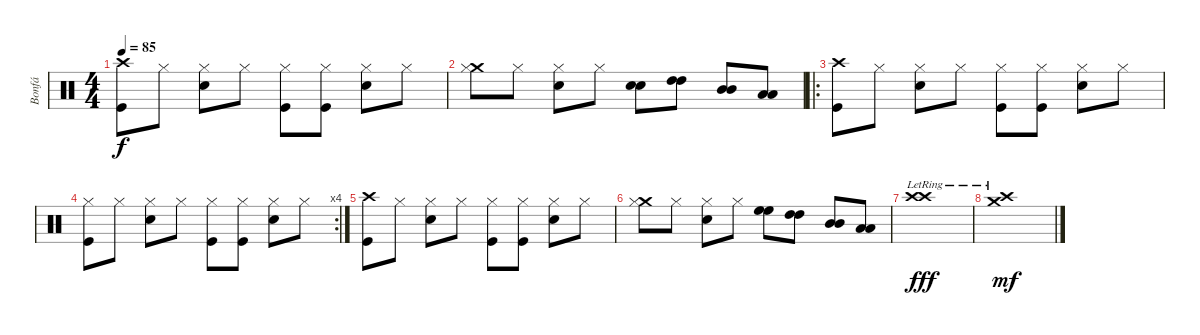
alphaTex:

\track ("Bonfá" "Bonfá") {instrument percussion}
\staff {score}
\articulation defaults
\ts (4 4)
\tempo 85
\clef neutral
\ks c
("Crash high (hit)" "Kick (hit)").8{dy f} "Hi-Hat (closed)".8 ("Electric Snare (hit)" "Hi-Hat (closed)").8 "Hi-Hat (closed)".8 ("Kick (hit)" "Hi-Hat (closed)").8 ("Kick (hit)" "Hi-Hat (closed)").8 ("Electric Snare (hit)" "Hi-Hat (closed)").8 "Hi-Hat (closed)".8 |
("Crash medium (hit)" "Hi-Hat (closed)").8 "Hi-Hat (closed)".8 ("Electric Snare (hit)" "Hi-Hat (closed)").8 "Hi-Hat (closed)".8 ("Electric Snare (hit)" "Electric Snare (hit)").8 ("High Tom (hit)" "High Tom (hit)").8 ("Mid Tom (hit)" "Mid Tom (hit)").8 ("Low Tom (hit)" "Low Tom (hit)").8 |
\ro
("Crash high (hit)" "Kick (hit)").8 "Hi-Hat (closed)".8 ("Electric Snare (hit)" "Hi-Hat (closed)").8 "Hi-Hat (closed)".8 ("Kick (hit)" "Hi-Hat (closed)").8 ("Kick (hit)" "Hi-Hat (closed)").8 ("Electric Snare (hit)" "Hi-Hat (closed)").8 "Hi-Hat (closed)".8 |
\rc 4
("Hi-Hat (closed)" "Kick (hit)").8 "Hi-Hat (closed)".8 ("Electric Snare (hit)" "Hi-Hat (closed)").8 "Hi-Hat (closed)".8 ("Kick (hit)" "Hi-Hat (closed)").8 ("Kick (hit)" "Hi-Hat (closed)").8 ("Electric Snare (hit)" "Hi-Hat (closed)").8 "Hi-Hat (closed)".8 |
("Crash high (hit)" "Kick (hit)").8 "Hi-Hat (closed)".8 ("Electric Snare (hit)" "Hi-Hat (closed)").8 "Hi-Hat (closed)".8 ("Kick (hit)" "Hi-Hat (closed)").8 ("Kick (hit)" "Hi-Hat (closed)").8 ("Electric Snare (hit)" "Hi-Hat (closed)").8 "Hi-Hat (closed)".8 |
("Crash medium (hit)" "Hi-Hat (closed)").8 "Hi-Hat (closed)".8 ("Electric Snare (hit)" "Hi-Hat (closed)").8 "Hi-Hat (closed)".8 ("High Floor Tom (hit)" "High Floor Tom (hit)").8 ("High Tom (hit)" "High Tom (hit)").8 ("Mid Tom (hit)" "Mid Tom (hit)").8 ("Low Tom (hit)" "Low Tom (hit)").8 |
("Crash high (hit)"{lr} "Crash high (hit)"{lr}).1{dy fff} |
("Crash high (hit)"{lr} "Crash medium (hit)"{lr}).1{dy mf}
